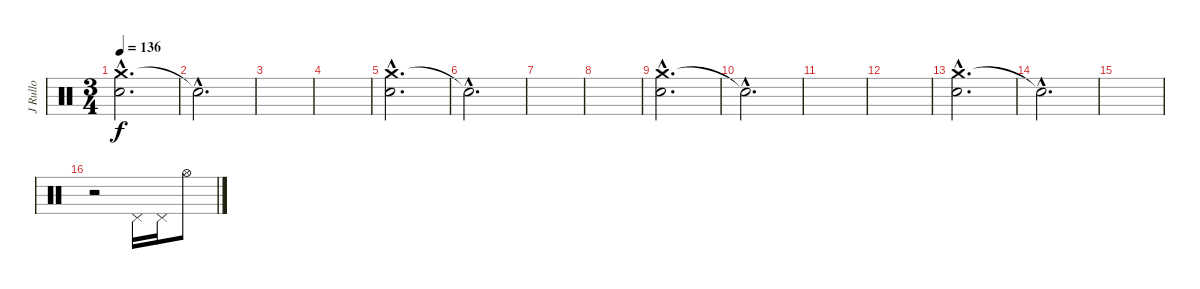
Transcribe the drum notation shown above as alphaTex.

\track ("J Rullo" "J Rullo") {instrument percussion}
\staff {score}
\articulation defaults
\ts (3 4)
\tempo 136
\clef neutral
\ks c
("Crash medium (hit)"{hac} "Electric Snare (hit)"{hac}).2{d dy f} |
"Snare (hit)"{hac t}.2{d} |
|
|
("Crash medium (hit)"{hac} "Electric Snare (hit)"{hac}).2{d} |
"Snare (hit)"{hac t}.2{d} |
|
|
("Crash medium (hit)"{hac} "Electric Snare (hit)"{hac}).2{d} |
"Snare (hit)"{hac t}.2{d} |
|
|
("Crash medium (hit)"{hac} "Electric Snare (hit)"{hac}).2{d} |
"Snare (hit)"{hac t}.2{d} |
|
r.2 "Pedal Hi-Hat (hit)".16 "Pedal Hi-Hat (hit)".16 "Hi-Hat (open)".8
